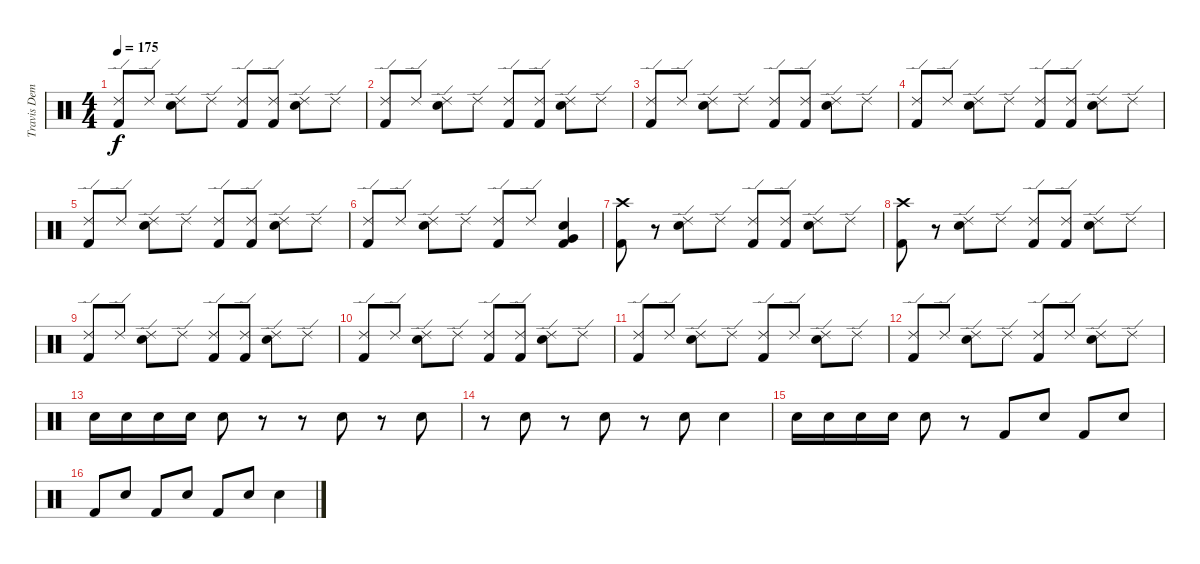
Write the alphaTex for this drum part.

\track ("Travis Dempsey" "Travis Dem") {instrument percussion}
\staff {score}
\articulation defaults
\ts (4 4)
\tempo 175
\clef neutral
\ks c
("Ride (edge) 2" "Kick (hit) 2").8{dy f} "Ride (edge) 2".8 ("Ride (edge) 2" "Electric Snare (hit)").8 "Ride (edge) 2".8 ("Ride (edge) 2" "Kick (hit) 2").8 ("Ride (edge) 2" "Kick (hit) 2").8 ("Ride (edge) 2" "Electric Snare (hit)").8 "Ride (edge) 2".8 |
("Ride (edge) 2" "Kick (hit) 2").8 "Ride (edge) 2".8 ("Ride (edge) 2" "Electric Snare (hit)").8 "Ride (edge) 2".8 ("Ride (edge) 2" "Kick (hit) 2").8 ("Ride (edge) 2" "Kick (hit) 2").8 ("Ride (edge) 2" "Electric Snare (hit)").8 "Ride (edge) 2".8 |
("Ride (edge) 2" "Kick (hit) 2").8 "Ride (edge) 2".8 ("Ride (edge) 2" "Electric Snare (hit)").8 "Ride (edge) 2".8 ("Ride (edge) 2" "Kick (hit) 2").8 ("Ride (edge) 2" "Kick (hit) 2").8 ("Ride (edge) 2" "Electric Snare (hit)").8 "Ride (edge) 2".8 |
("Ride (edge) 2" "Kick (hit) 2").8 "Ride (edge) 2".8 ("Ride (edge) 2" "Electric Snare (hit)").8 "Ride (edge) 2".8 ("Ride (edge) 2" "Kick (hit) 2").8 ("Ride (edge) 2" "Kick (hit) 2").8 ("Ride (edge) 2" "Electric Snare (hit)").8 "Ride (edge) 2".8 |
("Ride (edge) 2" "Kick (hit) 2").8 "Ride (edge) 2".8 ("Ride (edge) 2" "Electric Snare (hit)").8 "Ride (edge) 2".8 ("Ride (edge) 2" "Kick (hit) 2").8 ("Ride (edge) 2" "Kick (hit) 2").8 ("Ride (edge) 2" "Electric Snare (hit)").8 "Ride (edge) 2".8 |
("Ride (edge) 2" "Kick (hit) 2").8 "Ride (edge) 2".8 ("Ride (edge) 2" "Electric Snare (hit)").8 "Ride (edge) 2".8 ("Ride (edge) 2" "Kick (hit) 2").8 "Ride (edge) 2".8 ("Very Low Tom (hit)" "Electric Snare (hit)" "Kick (hit) 2").4 |
("Crash high (hit)" "Kick (hit) 2").8 r.8 ("Ride (edge) 2" "Electric Snare (hit)").8 "Ride (edge) 2".8 ("Ride (edge) 2" "Kick (hit) 2").8 ("Ride (edge) 2" "Kick (hit) 2").8 ("Ride (edge) 2" "Electric Snare (hit)").8 "Ride (edge) 2".8 |
("Crash high (hit)" "Kick (hit) 2").8 r.8 ("Ride (edge) 2" "Electric Snare (hit)").8 "Ride (edge) 2".8 ("Ride (edge) 2" "Kick (hit) 2").8 ("Ride (edge) 2" "Kick (hit) 2").8 ("Ride (edge) 2" "Electric Snare (hit)").8 "Ride (edge) 2".8 |
("Ride (edge) 2" "Kick (hit) 2").8 "Ride (edge) 2".8 ("Ride (edge) 2" "Electric Snare (hit)").8 "Ride (edge) 2".8 ("Ride (edge) 2" "Kick (hit) 2").8 ("Ride (edge) 2" "Kick (hit) 2").8 ("Ride (edge) 2" "Electric Snare (hit)").8 "Ride (edge) 2".8 |
("Ride (edge) 2" "Kick (hit) 2").8 "Ride (edge) 2".8 ("Ride (edge) 2" "Electric Snare (hit)").8 "Ride (edge) 2".8 ("Ride (edge) 2" "Kick (hit) 2").8 ("Ride (edge) 2" "Kick (hit) 2").8 ("Ride (edge) 2" "Electric Snare (hit)").8 "Ride (edge) 2".8 |
("Ride (edge) 2" "Kick (hit) 2").8 "Ride (edge) 2".8 ("Ride (edge) 2" "Electric Snare (hit)").8 "Ride (edge) 2".8 ("Ride (edge) 2" "Kick (hit) 2").8 "Ride (edge) 2".8 ("Ride (edge) 2" "Electric Snare (hit)").8 "Ride (edge) 2".8 |
("Ride (edge) 2" "Kick (hit) 2").8 "Ride (edge) 2".8 ("Ride (edge) 2" "Electric Snare (hit)").8 "Ride (edge) 2".8 ("Ride (edge) 2" "Kick (hit) 2").8 "Ride (edge) 2".8 ("Ride (edge) 2" "Electric Snare (hit)").8 "Ride (edge) 2".8 |
"Electric Snare (hit)".16 "Electric Snare (hit)".16 "Electric Snare (hit)".16 "Electric Snare (hit)".16 "Electric Snare (hit)".8 r.8 r.8 "Electric Snare (hit)".8 r.8 "Electric Snare (hit)".8 |
r.8 "Electric Snare (hit)".8 r.8 "Electric Snare (hit)".8 r.8 "Electric Snare (hit)".8 "Electric Snare (hit)".4 |
"Electric Snare (hit)".16 "Electric Snare (hit)".16 "Electric Snare (hit)".16 "Electric Snare (hit)".16 "Electric Snare (hit)".8 r.8 "Kick (hit) 2".8 "Electric Snare (hit)".8 "Kick (hit) 2".8 "Electric Snare (hit)".8 |
"Kick (hit) 2".8 "Electric Snare (hit)".8 "Kick (hit) 2".8 "Electric Snare (hit)".8 "Kick (hit) 2".8 "Electric Snare (hit)".8 "Electric Snare (hit)".4
